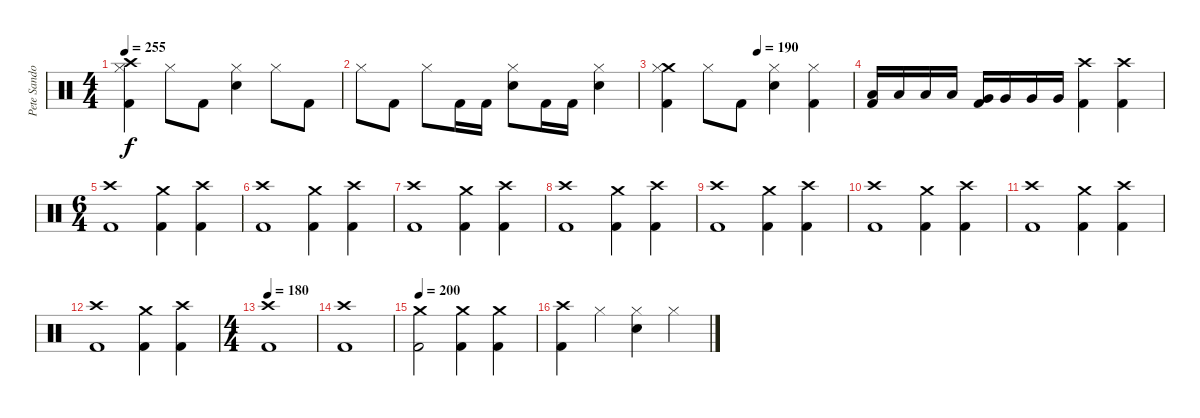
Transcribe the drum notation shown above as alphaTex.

\track ("Pete Sandoval" "Pete Sando") {instrument percussion}
\staff {score}
\articulation defaults
\ts (4 4)
\tempo 255
\clef neutral
\ks c
("Crash high (hit)" "Hi-Hat (closed)" "Kick (hit) 2").4{dy f} "Hi-Hat (closed)".8 "Kick (hit) 2".8 ("Hi-Hat (closed)" "Electric Snare (hit)").4 "Hi-Hat (closed)".8 "Kick (hit) 2".8 |
"Hi-Hat (closed)".8 "Kick (hit) 2".8 "Hi-Hat (closed)".8 "Kick (hit) 2".16 "Kick (hit) 2".16 ("Hi-Hat (closed)" "Electric Snare (hit)").8 "Kick (hit) 2".16 "Kick (hit) 2".16 ("Hi-Hat (closed)" "Electric Snare (hit)").4 |
\tempo (190 0.5)
("Crash medium (hit)" "Hi-Hat (closed)" "Kick (hit) 2").4 "Hi-Hat (closed)".8 "Kick (hit) 2".8 ("Hi-Hat (closed)" "Electric Snare (hit)").4 ("Hi-Hat (closed)" "Kick (hit) 2").4 |
("Low Tom (hit)" "Kick (hit) 2").16 "Low Tom (hit)".16 "Low Tom (hit)".16 "Low Tom (hit)".16 ("Very Low Tom (hit)" "Kick (hit) 2").16 "Very Low Tom (hit)".16 "Very Low Tom (hit)".16 "Very Low Tom (hit)".16 ("Crash high (hit)" "Kick (hit) 2").4 ("Crash high (hit)" "Kick (hit) 2").4 |
\ts (6 4)
("Crash high (hit)" "Kick (hit) 2").1 ("Crash medium (hit)" "Kick (hit) 2").4 ("Crash high (hit)" "Kick (hit) 2").4 |
("Crash high (hit)" "Kick (hit) 2").1 ("Crash medium (hit)" "Kick (hit) 2").4 ("Crash high (hit)" "Kick (hit) 2").4 |
("Crash high (hit)" "Kick (hit) 2").1 ("Crash medium (hit)" "Kick (hit) 2").4 ("Crash high (hit)" "Kick (hit) 2").4 |
("Crash high (hit)" "Kick (hit) 2").1 ("Crash medium (hit)" "Kick (hit) 2").4 ("Crash high (hit)" "Kick (hit) 2").4 |
("Crash high (hit)" "Kick (hit) 2").1 ("Crash medium (hit)" "Kick (hit) 2").4 ("Crash high (hit)" "Kick (hit) 2").4 |
("Crash high (hit)" "Kick (hit) 2").1 ("Crash medium (hit)" "Kick (hit) 2").4 ("Crash high (hit)" "Kick (hit) 2").4 |
("Crash high (hit)" "Kick (hit) 2").1 ("Crash medium (hit)" "Kick (hit) 2").4 ("Crash high (hit)" "Kick (hit) 2").4 |
("Crash high (hit)" "Kick (hit) 2").1 ("Crash medium (hit)" "Kick (hit) 2").4 ("Crash high (hit)" "Kick (hit) 2").4 |
\ts (4 4)
\tempo 180
("Crash high (hit)" "Kick (hit) 2").1 |
("Crash high (hit)" "Kick (hit) 2").1 |
\tempo 200
("Crash medium (hit)" "Kick (hit) 2").2 ("Crash medium (hit)" "Kick (hit) 2").4 ("Crash medium (hit)" "Kick (hit) 2").4 |
("Crash high (hit)" "Kick (hit) 2").4 "Hi-Hat (closed)".4 ("Hi-Hat (closed)" "Electric Snare (hit)").4 "Hi-Hat (closed)".4
